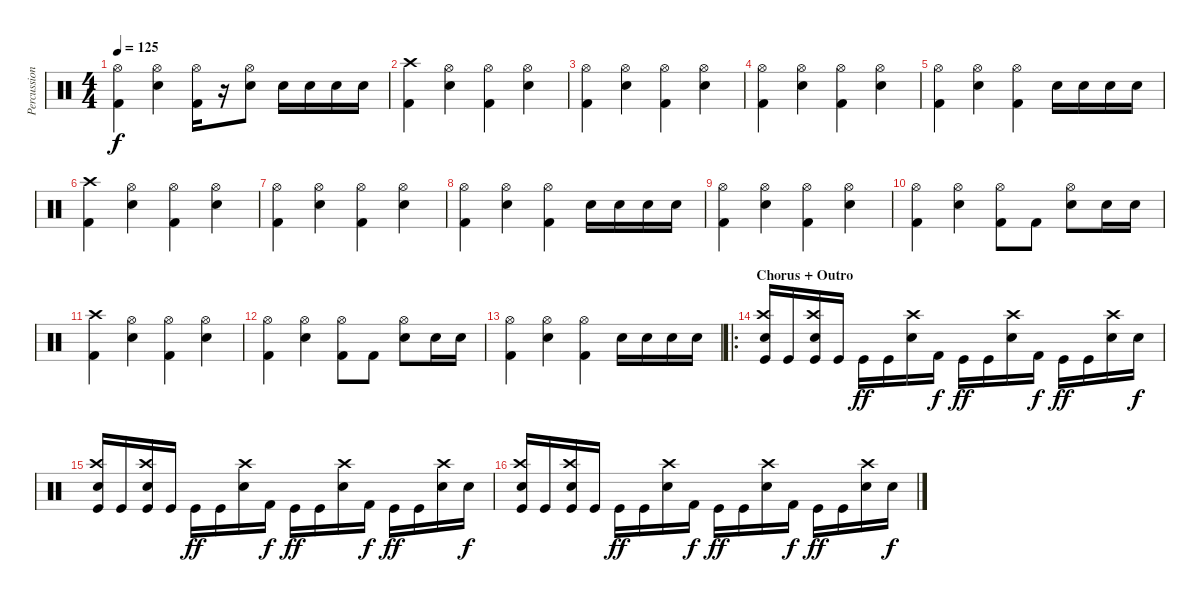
\track ("Percussion" "Percussion") {instrument percussion}
\staff {score}
\articulation defaults
\ts (4 4)
\tempo 125
\clef neutral
\ks c
("Kick (hit) 2" "Hi-Hat (open)").4{dy f} ("Hi-Hat (open)" "Snare (hit) 2").4 ("Kick (hit) 2" "Hi-Hat (open)").16 r.16 ("Hi-Hat (open)" "Snare (hit) 2").8 "Snare (hit) 2".16 "Snare (hit) 2".16 "Snare (hit) 2".16 "Snare (hit) 2".16 |
("Kick (hit) 2" "Crash high (hit)").4 ("Hi-Hat (open)" "Snare (hit) 2").4 ("Kick (hit) 2" "Hi-Hat (open)").4 ("Hi-Hat (open)" "Snare (hit) 2").4 |
("Kick (hit) 2" "Hi-Hat (open)").4 ("Hi-Hat (open)" "Snare (hit) 2").4 ("Kick (hit) 2" "Hi-Hat (open)").4 ("Hi-Hat (open)" "Snare (hit) 2").4 |
("Kick (hit) 2" "Hi-Hat (open)").4 ("Hi-Hat (open)" "Snare (hit) 2").4 ("Kick (hit) 2" "Hi-Hat (open)").4 ("Hi-Hat (open)" "Snare (hit) 2").4 |
("Kick (hit) 2" "Hi-Hat (open)").4 ("Hi-Hat (open)" "Snare (hit) 2").4 ("Kick (hit) 2" "Hi-Hat (open)").4 "Snare (hit) 2".16 "Snare (hit) 2".16 "Snare (hit) 2".16 "Snare (hit) 2".16 |
("Kick (hit) 2" "Crash high (hit)").4 ("Hi-Hat (open)" "Snare (hit) 2").4 ("Kick (hit) 2" "Hi-Hat (open)").4 ("Hi-Hat (open)" "Snare (hit) 2").4 |
("Kick (hit) 2" "Hi-Hat (open)").4 ("Hi-Hat (open)" "Snare (hit) 2").4 ("Kick (hit) 2" "Hi-Hat (open)").4 ("Hi-Hat (open)" "Snare (hit) 2").4 |
("Kick (hit) 2" "Hi-Hat (open)").4 ("Hi-Hat (open)" "Snare (hit) 2").4 ("Kick (hit) 2" "Hi-Hat (open)").4 "Snare (hit) 2".16 "Snare (hit) 2".16 "Snare (hit) 2".16 "Snare (hit) 2".16 |
("Kick (hit) 2" "Hi-Hat (open)").4 ("Hi-Hat (open)" "Snare (hit) 2").4 ("Kick (hit) 2" "Hi-Hat (open)").4 ("Hi-Hat (open)" "Snare (hit) 2").4 |
("Kick (hit) 2" "Hi-Hat (open)").4 ("Hi-Hat (open)" "Snare (hit) 2").4 ("Kick (hit) 2" "Hi-Hat (open)").8 "Kick (hit) 2".8 ("Hi-Hat (open)" "Snare (hit) 2").8 "Snare (hit) 2".16 "Snare (hit) 2".16 |
("Kick (hit) 2" "Crash high (hit)").4 ("Hi-Hat (open)" "Snare (hit) 2").4 ("Kick (hit) 2" "Hi-Hat (open)").4 ("Hi-Hat (open)" "Snare (hit) 2").4 |
("Kick (hit) 2" "Hi-Hat (open)").4 ("Hi-Hat (open)" "Snare (hit) 2").4 ("Kick (hit) 2" "Hi-Hat (open)").8 "Kick (hit) 2".8 ("Hi-Hat (open)" "Snare (hit) 2").8 "Snare (hit) 2".16 "Snare (hit) 2".16 |
("Kick (hit) 2" "Hi-Hat (open)").4 ("Hi-Hat (open)" "Snare (hit) 2").4 ("Kick (hit) 2" "Hi-Hat (open)").4 "Snare (hit) 2".16 "Snare (hit) 2".16 "Snare (hit) 2".16 "Snare (hit) 2".16 |
\ro
\section ("" "Chorus + Outro")
("Crash high (hit)" "Snare (hit) 2" "Kick (hit)").16 "Kick (hit)".16 ("Crash high (hit)" "Snare (hit) 2" "Kick (hit)").16 "Kick (hit)".16 "Kick (hit)".16{dy ff} "Kick (hit)".16 ("Crash high (hit)" "Snare (hit) 2").16 "Kick (hit) 2".16{dy f} "Kick (hit)".16{dy ff} "Kick (hit)".16 ("Crash high (hit)" "Snare (hit) 2").16 "Kick (hit) 2".16{dy f} "Kick (hit)".16{dy ff} "Kick (hit)".16 ("Crash high (hit)" "Snare (hit) 2").16 "Snare (hit) 2".16{dy f} |
("Crash high (hit)" "Snare (hit) 2" "Kick (hit)").16 "Kick (hit)".16 ("Crash high (hit)" "Snare (hit) 2" "Kick (hit)").16 "Kick (hit)".16 "Kick (hit)".16{dy ff} "Kick (hit)".16 ("Crash high (hit)" "Snare (hit) 2").16 "Kick (hit) 2".16{dy f} "Kick (hit)".16{dy ff} "Kick (hit)".16 ("Crash high (hit)" "Snare (hit) 2").16 "Kick (hit) 2".16{dy f} "Kick (hit)".16{dy ff} "Kick (hit)".16 ("Crash high (hit)" "Snare (hit) 2").16 "Snare (hit) 2".16{dy f} |
("Crash high (hit)" "Snare (hit) 2" "Kick (hit)").16 "Kick (hit)".16 ("Crash high (hit)" "Snare (hit) 2" "Kick (hit)").16 "Kick (hit)".16 "Kick (hit)".16{dy ff} "Kick (hit)".16 ("Crash high (hit)" "Snare (hit) 2").16 "Kick (hit) 2".16{dy f} "Kick (hit)".16{dy ff} "Kick (hit)".16 ("Crash high (hit)" "Snare (hit) 2").16 "Kick (hit) 2".16{dy f} "Kick (hit)".16{dy ff} "Kick (hit)".16 ("Crash high (hit)" "Snare (hit) 2").16 "Snare (hit) 2".16{dy f}
